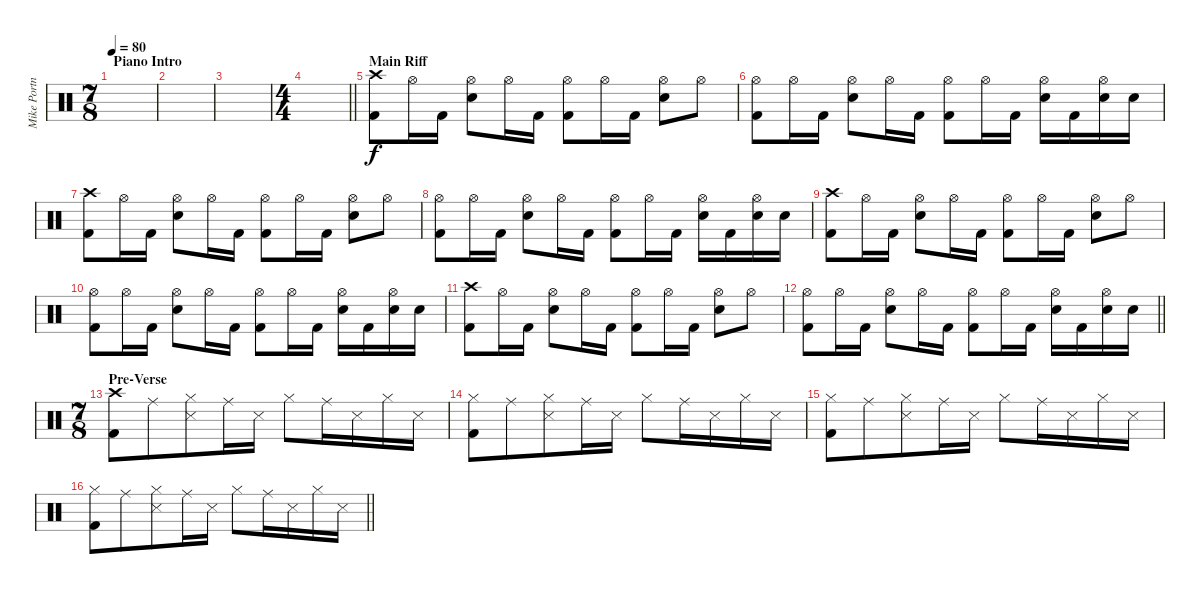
\track ("Mike Portnoy" "Mike Portn") {instrument percussion}
\staff {score}
\articulation defaults
\ts (7 8)
\section ("" "Piano Intro")
\tempo 80
\clef neutral
\ks c
|
|
|
\ts (4 4)
\barLineRight lightlight
|
\section ("" "Main Riff")
("Kick (hit) 2" "Crash high (hit)").8 "Hi-Hat (open)".16 "Kick (hit) 2".16 ("Electric Snare (hit)" "Hi-Hat (open)").8 "Hi-Hat (open)".16 "Kick (hit) 2".16 ("Kick (hit) 2" "Hi-Hat (open)").8 "Hi-Hat (open)".16 "Kick (hit) 2".16 ("Electric Snare (hit)" "Hi-Hat (open)").8 "Hi-Hat (open)".8 |
("Kick (hit) 2" "Hi-Hat (open)").8 "Hi-Hat (open)".16 "Kick (hit) 2".16 ("Electric Snare (hit)" "Hi-Hat (open)").8 "Hi-Hat (open)".16 "Kick (hit) 2".16 ("Kick (hit) 2" "Hi-Hat (open)").8 "Hi-Hat (open)".16 "Kick (hit) 2".16 ("Electric Snare (hit)" "Hi-Hat (open)").16 "Kick (hit) 2".16 ("Electric Snare (hit)" "Hi-Hat (open)").16 "Electric Snare (hit)".16 |
("Kick (hit) 2" "Crash high (hit)").8 "Hi-Hat (open)".16 "Kick (hit) 2".16 ("Electric Snare (hit)" "Hi-Hat (open)").8 "Hi-Hat (open)".16 "Kick (hit) 2".16 ("Kick (hit) 2" "Hi-Hat (open)").8 "Hi-Hat (open)".16 "Kick (hit) 2".16 ("Electric Snare (hit)" "Hi-Hat (open)").8 "Hi-Hat (open)".8 |
("Kick (hit) 2" "Hi-Hat (open)").8 "Hi-Hat (open)".16 "Kick (hit) 2".16 ("Electric Snare (hit)" "Hi-Hat (open)").8 "Hi-Hat (open)".16 "Kick (hit) 2".16 ("Kick (hit) 2" "Hi-Hat (open)").8 "Hi-Hat (open)".16 "Kick (hit) 2".16 ("Electric Snare (hit)" "Hi-Hat (open)").16 "Kick (hit) 2".16 ("Electric Snare (hit)" "Hi-Hat (open)").16 "Electric Snare (hit)".16 |
("Kick (hit) 2" "Crash high (hit)").8 "Hi-Hat (open)".16 "Kick (hit) 2".16 ("Electric Snare (hit)" "Hi-Hat (open)").8 "Hi-Hat (open)".16 "Kick (hit) 2".16 ("Kick (hit) 2" "Hi-Hat (open)").8 "Hi-Hat (open)".16 "Kick (hit) 2".16 ("Electric Snare (hit)" "Hi-Hat (open)").8 "Hi-Hat (open)".8 |
("Kick (hit) 2" "Hi-Hat (open)").8 "Hi-Hat (open)".16 "Kick (hit) 2".16 ("Electric Snare (hit)" "Hi-Hat (open)").8 "Hi-Hat (open)".16 "Kick (hit) 2".16 ("Kick (hit) 2" "Hi-Hat (open)").8 "Hi-Hat (open)".16 "Kick (hit) 2".16 ("Electric Snare (hit)" "Hi-Hat (open)").16 "Kick (hit) 2".16 ("Electric Snare (hit)" "Hi-Hat (open)").16 "Electric Snare (hit)".16 |
("Kick (hit) 2" "Crash high (hit)").8 "Hi-Hat (open)".16 "Kick (hit) 2".16 ("Electric Snare (hit)" "Hi-Hat (open)").8 "Hi-Hat (open)".16 "Kick (hit) 2".16 ("Kick (hit) 2" "Hi-Hat (open)").8 "Hi-Hat (open)".16 "Kick (hit) 2".16 ("Electric Snare (hit)" "Hi-Hat (open)").8 "Hi-Hat (open)".8 |
\barLineRight lightlight
("Kick (hit) 2" "Hi-Hat (open)").8 "Hi-Hat (open)".16 "Kick (hit) 2".16 ("Electric Snare (hit)" "Hi-Hat (open)").8 "Hi-Hat (open)".16 "Kick (hit) 2".16 ("Kick (hit) 2" "Hi-Hat (open)").8 "Hi-Hat (open)".16 "Kick (hit) 2".16 ("Electric Snare (hit)" "Hi-Hat (open)").16 "Kick (hit) 2".16 ("Electric Snare (hit)" "Hi-Hat (open)").16 "Electric Snare (hit)".16 |
\ts (7 8)
\section ("" "Pre-Verse")
("Kick (hit) 2" "Crash high (hit)").8 "Ride (middle)".8 ("Hi-Hat (closed)" "Snare (side stick) 3").8 "Ride (middle)".16 "Snare (side stick) 3".16 "Hi-Hat (closed)".8 "Ride (middle)".16 "Snare (side stick) 3".16 "Hi-Hat (closed)".16 "Snare (side stick) 3".16 |
("Kick (hit) 2" "Hi-Hat (closed)").8 "Ride (middle)".8 ("Hi-Hat (closed)" "Snare (side stick) 3").8 "Ride (middle)".16 "Snare (side stick) 3".16 "Hi-Hat (closed)".8 "Ride (middle)".16 "Snare (side stick) 3".16 "Hi-Hat (closed)".16 "Snare (side stick) 3".16 |
("Kick (hit) 2" "Hi-Hat (closed)").8 "Ride (middle)".8 ("Hi-Hat (closed)" "Snare (side stick) 3").8 "Ride (middle)".16 "Snare (side stick) 3".16 "Hi-Hat (closed)".8 "Ride (middle)".16 "Snare (side stick) 3".16 "Hi-Hat (closed)".16 "Snare (side stick) 3".16 |
\barLineRight lightlight
("Kick (hit) 2" "Hi-Hat (closed)").8 "Ride (middle)".8 ("Hi-Hat (closed)" "Snare (side stick) 3").8 "Ride (middle)".16 "Snare (side stick) 3".16 "Hi-Hat (closed)".8 "Ride (middle)".16 "Snare (side stick) 3".16 "Hi-Hat (closed)".16 "Snare (side stick) 3".16
